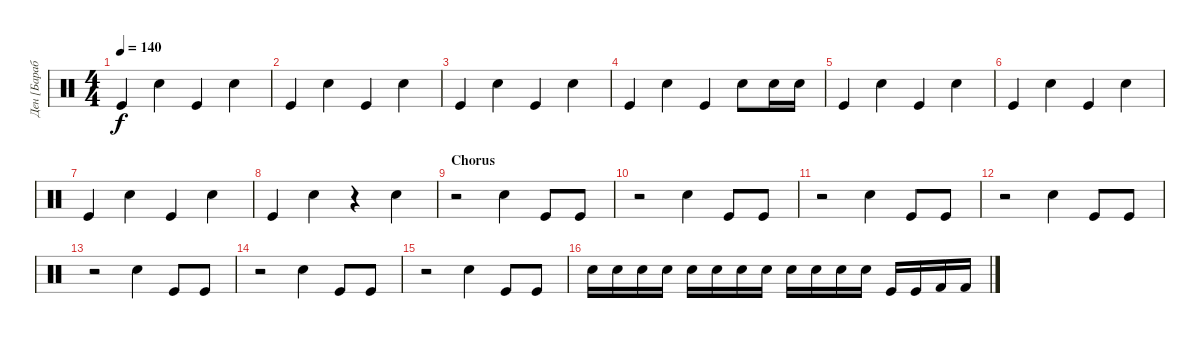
\track ("Ден [Барабаны]" "Ден [Бараб") {instrument percussion}
\staff {score}
\articulation defaults
\ts (4 4)
\tempo 140
\clef neutral
\ks c "Kick (hit)".4{dy f} "Electric Snare (hit)".4 "Kick (hit)".4 "Electric Snare (hit)".4
|
"Kick (hit)".4 "Electric Snare (hit)".4 "Kick (hit)".4 "Electric Snare (hit)".4 |
"Kick (hit)".4 "Electric Snare (hit)".4 "Kick (hit)".4 "Electric Snare (hit)".4 |
"Kick (hit)".4 "Electric Snare (hit)".4 "Kick (hit)".4 "Electric Snare (hit)".8 "Electric Snare (hit)".16 "Electric Snare (hit)".16 |
"Kick (hit)".4 "Electric Snare (hit)".4 "Kick (hit)".4 "Electric Snare (hit)".4 |
"Kick (hit)".4 "Electric Snare (hit)".4 "Kick (hit)".4 "Electric Snare (hit)".4 |
"Kick (hit)".4 "Electric Snare (hit)".4 "Kick (hit)".4 "Electric Snare (hit)".4 |
"Kick (hit)".4 "Electric Snare (hit)".4 r.4 "Electric Snare (hit)".4 |
\section ("" "Chorus")
r.2 "Electric Snare (hit)".4 "Kick (hit)".8 "Kick (hit)".8 |
r.2 "Electric Snare (hit)".4 "Kick (hit)".8 "Kick (hit)".8 |
r.2 "Electric Snare (hit)".4 "Kick (hit)".8 "Kick (hit)".8 |
r.2 "Electric Snare (hit)".4 "Kick (hit)".8 "Kick (hit)".8 |
r.2 "Electric Snare (hit)".4 "Kick (hit)".8 "Kick (hit)".8 |
r.2 "Electric Snare (hit)".4 "Kick (hit)".8 "Kick (hit)".8 |
r.2 "Electric Snare (hit)".4 "Kick (hit)".8 "Kick (hit)".8 |
"Electric Snare (hit)".16 "Electric Snare (hit)".16 "Electric Snare (hit)".16 "Electric Snare (hit)".16 "Electric Snare (hit)".16 "Electric Snare (hit)".16 "Electric Snare (hit)".16 "Electric Snare (hit)".16 "Electric Snare (hit)".16 "Electric Snare (hit)".16 "Electric Snare (hit)".16 "Electric Snare (hit)".16 "Kick (hit)".16 "Kick (hit)".16 "Kick (hit) 2".16 "Kick (hit) 2".16
